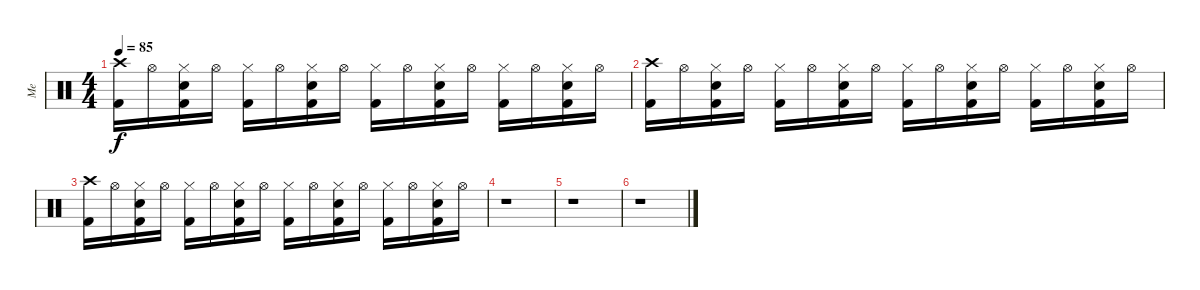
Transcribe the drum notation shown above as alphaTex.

\track ("Me" "Me") {instrument percussion}
\staff {score}
\articulation defaults
\ts (4 4)
\tempo 85
\clef neutral
\ks c
("Crash high (hit)" "Kick (hit) 2").16{dy f} "Hi-Hat (open)".16 ("Hi-Hat (closed)" "Electric Snare (hit)" "Kick (hit) 2").16 "Hi-Hat (open)".16 ("Hi-Hat (closed)" "Kick (hit) 2").16 "Hi-Hat (open)".16 ("Hi-Hat (closed)" "Electric Snare (hit)" "Kick (hit) 2").16 "Hi-Hat (open)".16 ("Hi-Hat (closed)" "Kick (hit) 2").16 "Hi-Hat (open)".16 ("Hi-Hat (closed)" "Electric Snare (hit)" "Kick (hit) 2").16 "Hi-Hat (open)".16 ("Hi-Hat (closed)" "Kick (hit) 2").16 "Hi-Hat (open)".16 ("Hi-Hat (closed)" "Electric Snare (hit)" "Kick (hit) 2").16 "Hi-Hat (open)".16 |
("Crash high (hit)" "Kick (hit) 2").16 "Hi-Hat (open)".16 ("Hi-Hat (closed)" "Electric Snare (hit)" "Kick (hit) 2").16 "Hi-Hat (open)".16 ("Hi-Hat (closed)" "Kick (hit) 2").16 "Hi-Hat (open)".16 ("Hi-Hat (closed)" "Electric Snare (hit)" "Kick (hit) 2").16 "Hi-Hat (open)".16 ("Hi-Hat (closed)" "Kick (hit) 2").16 "Hi-Hat (open)".16 ("Hi-Hat (closed)" "Electric Snare (hit)" "Kick (hit) 2").16 "Hi-Hat (open)".16 ("Hi-Hat (closed)" "Kick (hit) 2").16 "Hi-Hat (open)".16 ("Hi-Hat (closed)" "Electric Snare (hit)" "Kick (hit) 2").16 "Hi-Hat (open)".16 |
("Crash high (hit)" "Kick (hit) 2").16 "Hi-Hat (open)".16 ("Hi-Hat (closed)" "Electric Snare (hit)" "Kick (hit) 2").16 "Hi-Hat (open)".16 ("Hi-Hat (closed)" "Kick (hit) 2").16 "Hi-Hat (open)".16 ("Hi-Hat (closed)" "Electric Snare (hit)" "Kick (hit) 2").16 "Hi-Hat (open)".16 ("Hi-Hat (closed)" "Kick (hit) 2").16 "Hi-Hat (open)".16 ("Hi-Hat (closed)" "Electric Snare (hit)" "Kick (hit) 2").16 "Hi-Hat (open)".16 ("Hi-Hat (closed)" "Kick (hit) 2").16 "Hi-Hat (open)".16 ("Hi-Hat (closed)" "Electric Snare (hit)" "Kick (hit) 2").16 "Hi-Hat (open)".16 |
r.1 |
r.1 |
r.1
